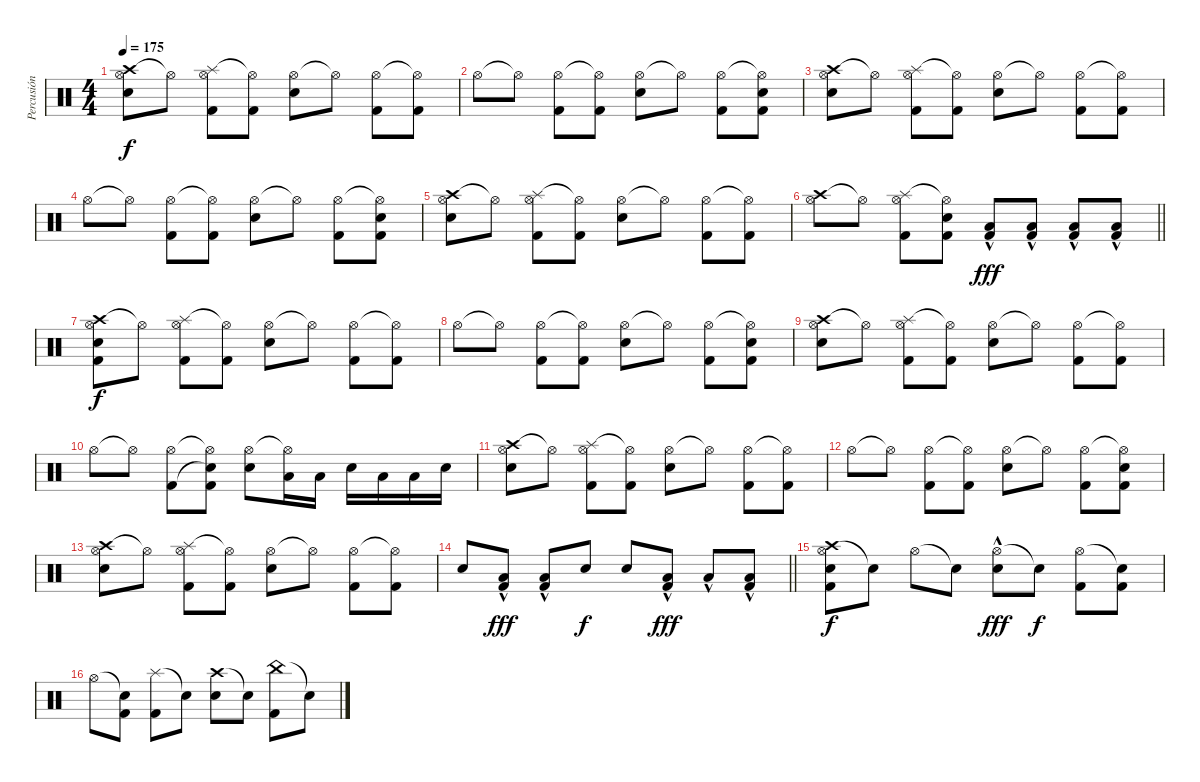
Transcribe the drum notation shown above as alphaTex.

\track ("Percusión" "Percusión") {instrument percussion}
\staff {score}
\articulation defaults
\ts (4 4)
\tempo 175
\clef neutral
\ks c
("Crash high (hit)" "Hi-Hat (open)" "Electric Snare (hit)").8{dy f} "Hi-Hat (open)"{t}.8 ("Splash (hit)" "Hi-Hat (open)" "Kick (hit) 2").8 ("Hi-Hat (open)"{t} "Kick (hit) 2").8 ("Hi-Hat (open)" "Electric Snare (hit)").8 "Hi-Hat (open)"{t}.8 ("Hi-Hat (open)" "Kick (hit) 2").8 ("Hi-Hat (open)"{t} "Kick (hit) 2").8 |
"Hi-Hat (open)".8 "Hi-Hat (open)"{t}.8 ("Hi-Hat (open)" "Kick (hit) 2").8 ("Hi-Hat (open)"{t} "Kick (hit) 2").8 ("Hi-Hat (open)" "Electric Snare (hit)").8 "Hi-Hat (open)"{t}.8 ("Hi-Hat (open)" "Kick (hit) 2").8 ("Hi-Hat (open)"{t} "Electric Snare (hit)" "Kick (hit) 2").8 |
("Crash high (hit)" "Hi-Hat (open)" "Electric Snare (hit)").8 "Hi-Hat (open)"{t}.8 ("Splash (hit)" "Hi-Hat (open)" "Kick (hit) 2").8 ("Hi-Hat (open)"{t} "Kick (hit) 2").8 ("Hi-Hat (open)" "Electric Snare (hit)").8 "Hi-Hat (open)"{t}.8 ("Hi-Hat (open)" "Kick (hit) 2").8 ("Hi-Hat (open)"{t} "Kick (hit) 2").8 |
"Hi-Hat (open)".8 "Hi-Hat (open)"{t}.8 ("Hi-Hat (open)" "Kick (hit) 2").8 ("Hi-Hat (open)"{t} "Kick (hit) 2").8 ("Hi-Hat (open)" "Electric Snare (hit)").8 "Hi-Hat (open)"{t}.8 ("Hi-Hat (open)" "Kick (hit) 2").8 ("Hi-Hat (open)"{t} "Electric Snare (hit)" "Kick (hit) 2").8 |
("Crash high (hit)" "Hi-Hat (open)" "Electric Snare (hit)").8 "Hi-Hat (open)"{t}.8 ("Splash (hit)" "Hi-Hat (open)" "Kick (hit) 2").8 ("Hi-Hat (open)"{t} "Kick (hit) 2").8 ("Hi-Hat (open)" "Electric Snare (hit)").8 "Hi-Hat (open)"{t}.8 ("Hi-Hat (open)" "Kick (hit) 2").8 ("Hi-Hat (open)"{t} "Kick (hit) 2").8 |
\barLineRight lightlight
("Crash high (hit)" "Hi-Hat (open)").8 "Hi-Hat (open)"{t}.8 ("Splash (hit)" "Hi-Hat (open)" "Kick (hit) 2").8 ("Hi-Hat (open)"{t} "Electric Snare (hit)" "Kick (hit) 2").8 ("Low Floor Tom (hit)"{hac} "Kick (hit) 2").8{dy fff} ("Low Floor Tom (hit)"{hac} "Kick (hit) 2").8 ("Low Floor Tom (hit)"{hac} "Kick (hit) 2").8 ("Low Floor Tom (hit)"{hac} "Kick (hit) 2").8 |
("Crash high (hit)" "Hi-Hat (open)" "Electric Snare (hit)" "Kick (hit) 2").8{dy f} "Hi-Hat (open)"{t}.8 ("Splash (hit)" "Hi-Hat (open)" "Kick (hit) 2").8 ("Hi-Hat (open)"{t} "Kick (hit) 2").8 ("Hi-Hat (open)" "Electric Snare (hit)").8 "Hi-Hat (open)"{t}.8 ("Hi-Hat (open)" "Kick (hit) 2").8 ("Hi-Hat (open)"{t} "Kick (hit) 2").8 |
"Hi-Hat (open)".8 "Hi-Hat (open)"{t}.8 ("Hi-Hat (open)" "Kick (hit) 2").8 ("Hi-Hat (open)"{t} "Kick (hit) 2").8 ("Hi-Hat (open)" "Electric Snare (hit)").8 "Hi-Hat (open)"{t}.8 ("Hi-Hat (open)" "Kick (hit) 2").8 ("Hi-Hat (open)"{t} "Electric Snare (hit)" "Kick (hit) 2").8 |
("Crash high (hit)" "Hi-Hat (open)" "Electric Snare (hit)").8 "Hi-Hat (open)"{t}.8 ("Splash (hit)" "Hi-Hat (open)" "Kick (hit) 2").8 ("Hi-Hat (open)"{t} "Kick (hit) 2").8 ("Hi-Hat (open)" "Electric Snare (hit)").8 "Hi-Hat (open)"{t}.8 ("Hi-Hat (open)" "Kick (hit) 2").8 ("Hi-Hat (open)"{t} "Kick (hit) 2").8 |
"Hi-Hat (open)".8 "Hi-Hat (open)"{t}.8 ("Hi-Hat (open)" "Kick (hit) 2").8 ("Hi-Hat (open)"{t} "Snare (hit)"{t} "Kick (hit) 2").8 ("Hi-Hat (open)" "Electric Snare (hit)").8 ("Hi-Hat (open)"{t} "Low Floor Tom (hit)").16 "Low Floor Tom (hit)".16 "Electric Snare (hit)".16 "Low Floor Tom (hit)".16 "Low Floor Tom (hit)".16 "Electric Snare (hit)".16 |
("Crash high (hit)" "Hi-Hat (open)" "Electric Snare (hit)").8 "Hi-Hat (open)"{t}.8 ("Splash (hit)" "Hi-Hat (open)" "Kick (hit) 2").8 ("Hi-Hat (open)"{t} "Kick (hit) 2").8 ("Hi-Hat (open)" "Electric Snare (hit)").8 "Hi-Hat (open)"{t}.8 ("Hi-Hat (open)" "Kick (hit) 2").8 ("Hi-Hat (open)"{t} "Kick (hit) 2").8 |
"Hi-Hat (open)".8 "Hi-Hat (open)"{t}.8 ("Hi-Hat (open)" "Kick (hit) 2").8 ("Hi-Hat (open)"{t} "Kick (hit) 2").8 ("Hi-Hat (open)" "Electric Snare (hit)").8 "Hi-Hat (open)"{t}.8 ("Hi-Hat (open)" "Kick (hit) 2").8 ("Hi-Hat (open)"{t} "Electric Snare (hit)" "Kick (hit) 2").8 |
("Crash high (hit)" "Hi-Hat (open)" "Electric Snare (hit)").8 "Hi-Hat (open)"{t}.8 ("Splash (hit)" "Hi-Hat (open)" "Kick (hit) 2").8 ("Hi-Hat (open)"{t} "Kick (hit) 2").8 ("Hi-Hat (open)" "Electric Snare (hit)").8 "Hi-Hat (open)"{t}.8 ("Hi-Hat (open)" "Kick (hit) 2").8 ("Hi-Hat (open)"{t} "Kick (hit) 2").8 |
\barLineRight lightlight "Electric Snare (hit)".8
("Low Floor Tom (hit)"{hac} "Kick (hit) 2").8{dy fff} ("Low Floor Tom (hit)"{hac} "Kick (hit) 2").8 "Electric Snare (hit)".8{dy f} "Electric Snare (hit)".8 ("Low Floor Tom (hit)"{hac} "Kick (hit) 2").8{dy fff} "Low Floor Tom (hit)"{hac}.8 ("Low Floor Tom (hit)"{hac} "Kick (hit) 2").8 |
("Crash high (hit)" "Hi-Hat (open)" "Electric Snare (hit)" "Kick (hit) 2").8{dy f} "Snare (hit)"{t}.8 "Hi-Hat (open)".8 "Snare (hit)"{t}.8 ("Hi-Hat (open)" "Electric Snare (hit)"{hac}).8{dy fff} "Snare (hit)"{t}.8{dy f} ("Hi-Hat (open)" "Kick (hit) 2").8 ("Snare (hit)"{t} "Kick (hit) 2").8 |
"Hi-Hat (open)".8 ("Snare (hit)"{t} "Kick (hit) 2").8 ("Splash (hit)" "Kick (hit) 2").8 "Snare (hit)"{t}.8 ("Crash high (hit)" "Electric Snare (hit)").8 "Snare (hit)"{t}.8 ("China (hit)" "Kick (hit) 2").8 "Snare (hit)"{t}.8
